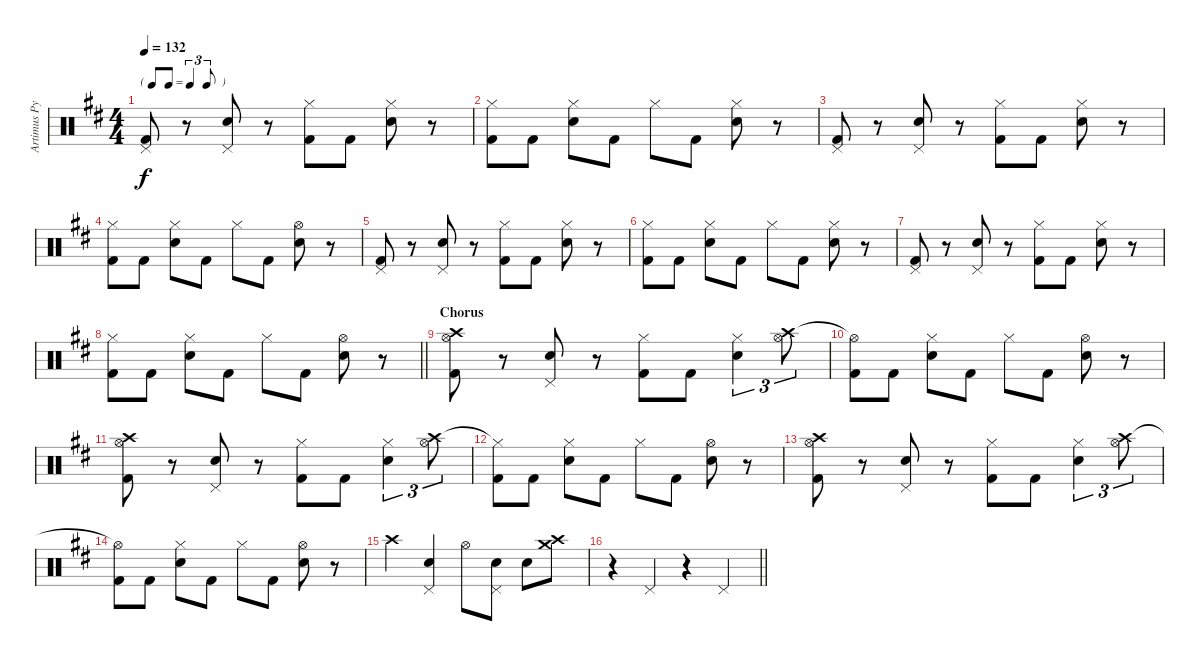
\track ("Artimus Pyle - Drums" "Artimus Py") {solo instrument percussion}
\staff {score}
\articulation defaults
\ts (4 4)
\tf triplet8th
\tempo 132
\clef neutral
\ks d
("Pedal Hi-Hat (hit)" "Kick (hit) 2").8{dy f} r.8 ("Snare (hit) 2" "Pedal Hi-Hat (hit)").8 r.8 ("Hi-Hat (closed)" "Kick (hit) 2").8 "Kick (hit) 2".8 ("Snare (hit) 2" "Hi-Hat (closed)").8 r.8 |
("Hi-Hat (closed)" "Kick (hit) 2").8 "Kick (hit) 2".8 ("Snare (hit) 2" "Hi-Hat (closed)").8 "Kick (hit) 2".8 "Hi-Hat (closed)".8 "Kick (hit) 2".8 ("Snare (hit) 2" "Hi-Hat (closed)").8 r.8 |
("Pedal Hi-Hat (hit)" "Kick (hit) 2").8 r.8 ("Snare (hit) 2" "Pedal Hi-Hat (hit)").8 r.8 ("Hi-Hat (closed)" "Kick (hit) 2").8 "Kick (hit) 2".8 ("Snare (hit) 2" "Hi-Hat (closed)").8 r.8 |
("Hi-Hat (closed)" "Kick (hit) 2").8 "Kick (hit) 2".8 ("Snare (hit) 2" "Hi-Hat (closed)").8 "Kick (hit) 2".8 "Hi-Hat (closed)".8 "Kick (hit) 2".8 ("Snare (hit) 2" "Hi-Hat (open)").8 r.8 |
("Pedal Hi-Hat (hit)" "Kick (hit) 2").8 r.8 ("Snare (hit) 2" "Pedal Hi-Hat (hit)").8 r.8 ("Hi-Hat (closed)" "Kick (hit) 2").8 "Kick (hit) 2".8 ("Snare (hit) 2" "Hi-Hat (closed)").8 r.8 |
("Hi-Hat (closed)" "Kick (hit) 2").8 "Kick (hit) 2".8 ("Snare (hit) 2" "Hi-Hat (closed)").8 "Kick (hit) 2".8 "Hi-Hat (closed)".8 "Kick (hit) 2".8 ("Snare (hit) 2" "Hi-Hat (closed)").8 r.8 |
("Pedal Hi-Hat (hit)" "Kick (hit) 2").8 r.8 ("Snare (hit) 2" "Pedal Hi-Hat (hit)").8 r.8 ("Hi-Hat (closed)" "Kick (hit) 2").8 "Kick (hit) 2".8 ("Snare (hit) 2" "Hi-Hat (closed)").8 r.8 |
\barLineRight lightlight
("Hi-Hat (closed)" "Kick (hit) 2").8 "Kick (hit) 2".8 ("Snare (hit) 2" "Hi-Hat (closed)").8 "Kick (hit) 2".8 "Hi-Hat (closed)".8 "Kick (hit) 2".8 ("Snare (hit) 2" "Hi-Hat (open)").8 r.8 |
\section ("" "Chorus")
("Crash high (hit)" "Hi-Hat (open)" "Kick (hit) 2").8 r.8 ("Snare (hit) 2" "Pedal Hi-Hat (hit)").8 r.8 ("Hi-Hat (closed)" "Kick (hit) 2").8 "Kick (hit) 2".8 ("Snare (hit) 2" "Hi-Hat (closed)").4{tu (3 2)} ("Crash high (hit)" "Hi-Hat (open)").8{tu (3 2)} |
("Hi-Hat (open)"{t} "Kick (hit) 2").8 "Kick (hit) 2".8 ("Snare (hit) 2" "Hi-Hat (closed)").8 "Kick (hit) 2".8 "Hi-Hat (closed)".8 "Kick (hit) 2".8 ("Snare (hit) 2" "Hi-Hat (open)").8 r.8 |
("Crash high (hit)" "Hi-Hat (open)" "Kick (hit) 2").8 r.8 ("Snare (hit) 2" "Pedal Hi-Hat (hit)").8 r.8 ("Hi-Hat (closed)" "Kick (hit) 2").8 "Kick (hit) 2".8 ("Snare (hit) 2" "Hi-Hat (closed)").4{tu (3 2)} ("Crash high (hit)" "Hi-Hat (open)").8{tu (3 2)} |
("Hi-Hat (closed)"{t} "Kick (hit) 2").8 "Kick (hit) 2".8 ("Snare (hit) 2" "Hi-Hat (closed)").8 "Kick (hit) 2".8 "Hi-Hat (closed)".8 "Kick (hit) 2".8 ("Snare (hit) 2" "Hi-Hat (open)").8 r.8 |
("Crash high (hit)" "Hi-Hat (open)" "Kick (hit) 2").8 r.8 ("Snare (hit) 2" "Pedal Hi-Hat (hit)").8 r.8 ("Hi-Hat (closed)" "Kick (hit) 2").8 "Kick (hit) 2".8 ("Snare (hit) 2" "Hi-Hat (closed)").4{tu (3 2)} ("Crash high (hit)" "Hi-Hat (open)").8{tu (3 2)} |
("Hi-Hat (open)"{t} "Kick (hit) 2").8 "Kick (hit) 2".8 ("Snare (hit) 2" "Hi-Hat (closed)").8 "Kick (hit) 2".8 "Hi-Hat (closed)".8 "Kick (hit) 2".8 ("Snare (hit) 2" "Hi-Hat (open)").8 r.8 |
"Crash high (hit)".4 ("Snare (hit) 2" "Pedal Hi-Hat (hit)").4 "Hi-Hat (open)".8 ("Snare (hit) 2" "Pedal Hi-Hat (hit)").8 "Snare (hit) 2".8 ("Crash high (hit)" "Crash medium (hit)").8 |
\barLineRight lightlight
r.4 "Pedal Hi-Hat (hit)".4 r.4 "Pedal Hi-Hat (hit)".4
